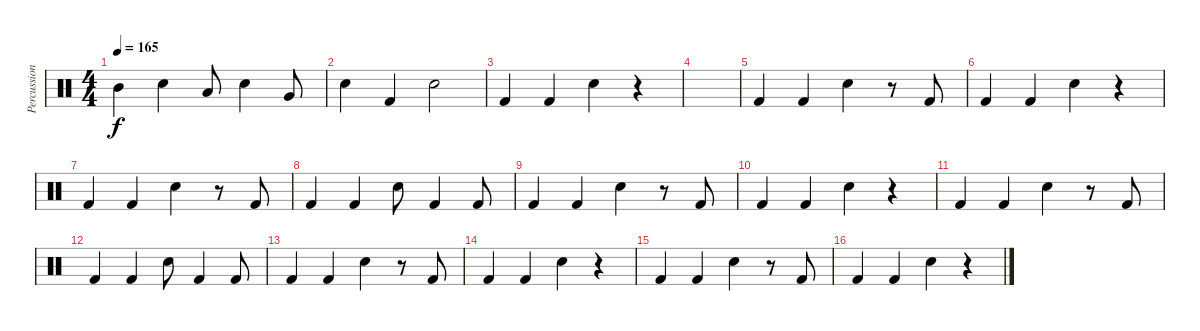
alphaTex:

\track ("Percussion" "Percussion") {instrument percussion}
\staff {score}
\articulation defaults
\ts (4 4)
\tempo 165
\clef neutral
\ks c "Mid Tom (hit)".4{dy f} "Electric Snare (hit)".4 "Low Tom (hit)".8 "Electric Snare (hit)".4 "Very Low Tom (hit)".8
|
"Electric Snare (hit)".4 "Kick (hit) 2".4 "Electric Snare (hit)".2 |
"Kick (hit) 2".4 "Kick (hit) 2".4 "Electric Snare (hit)".4 r.4 |
|
"Kick (hit) 2".4 "Kick (hit) 2".4 "Electric Snare (hit)".4 r.8 "Kick (hit) 2".8 |
"Kick (hit) 2".4 "Kick (hit) 2".4 "Electric Snare (hit)".4 r.4 |
"Kick (hit) 2".4 "Kick (hit) 2".4 "Electric Snare (hit)".4 r.8 "Kick (hit) 2".8 |
"Kick (hit) 2".4 "Kick (hit) 2".4 "Electric Snare (hit)".8 "Kick (hit) 2".4 "Kick (hit) 2".8 |
"Kick (hit) 2".4 "Kick (hit) 2".4 "Electric Snare (hit)".4 r.8 "Kick (hit) 2".8 |
"Kick (hit) 2".4 "Kick (hit) 2".4 "Electric Snare (hit)".4 r.4 |
"Kick (hit) 2".4 "Kick (hit) 2".4 "Electric Snare (hit)".4 r.8 "Kick (hit) 2".8 |
"Kick (hit) 2".4 "Kick (hit) 2".4 "Electric Snare (hit)".8 "Kick (hit) 2".4 "Kick (hit) 2".8 |
"Kick (hit) 2".4 "Kick (hit) 2".4 "Electric Snare (hit)".4 r.8 "Kick (hit) 2".8 |
"Kick (hit) 2".4 "Kick (hit) 2".4 "Electric Snare (hit)".4 r.4 |
"Kick (hit) 2".4 "Kick (hit) 2".4 "Electric Snare (hit)".4 r.8 "Kick (hit) 2".8 |
"Kick (hit) 2".4 "Kick (hit) 2".4 "Electric Snare (hit)".4 r.4
